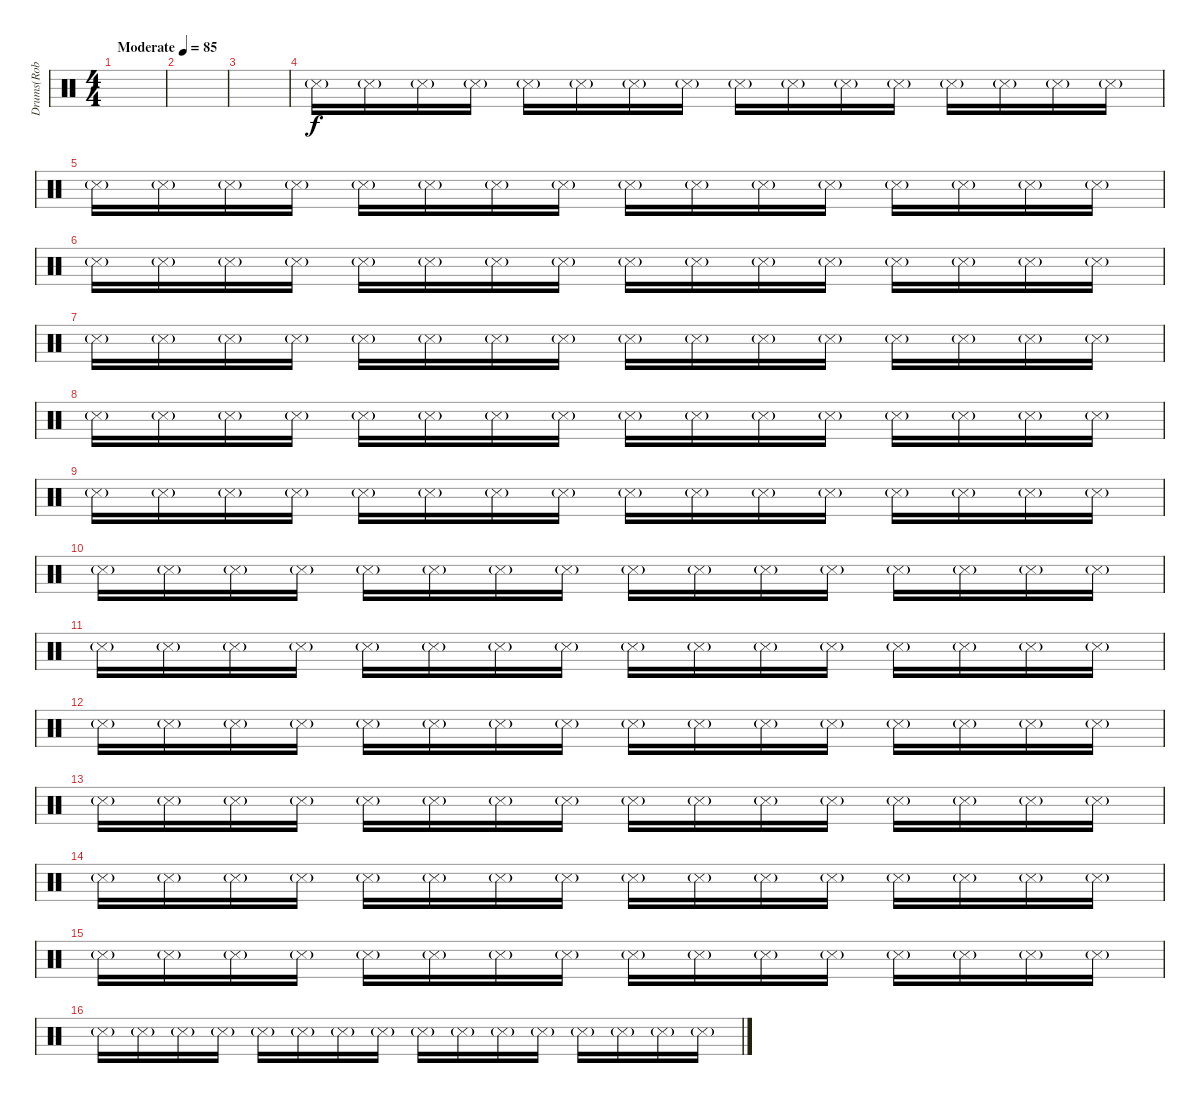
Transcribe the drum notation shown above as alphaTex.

\track ("Drums(Rob Bourdon)(Left hand)" "Drums(Rob ") {instrument percussion}
\staff {score}
\articulation defaults
\ts (4 4)
\tempo (85 "Moderate")
\clef neutral
\ks c
|
|
|
"Metronome (hit)"{g}.16{volume 0} "Metronome (hit)"{g}.16{volume 7} "Metronome (hit)"{g}.16 "Metronome (hit)"{g}.16 "Metronome (hit)"{g}.16 "Metronome (hit)"{g}.16 "Metronome (hit)"{g}.16 "Metronome (hit)"{g}.16 "Metronome (hit)"{g}.16 "Metronome (hit)"{g}.16 "Metronome (hit)"{g}.16 "Metronome (hit)"{g}.16 "Metronome (hit)"{g}.16 "Metronome (hit)"{g}.16 "Metronome (hit)"{g}.16 "Metronome (hit)"{g}.16 |
"Metronome (hit)"{g}.16{volume 7} "Metronome (hit)"{g}.16 "Metronome (hit)"{g}.16 "Metronome (hit)"{g}.16 "Metronome (hit)"{g}.16 "Metronome (hit)"{g}.16 "Metronome (hit)"{g}.16 "Metronome (hit)"{g}.16 "Metronome (hit)"{g}.16 "Metronome (hit)"{g}.16 "Metronome (hit)"{g}.16 "Metronome (hit)"{g}.16 "Metronome (hit)"{g}.16 "Metronome (hit)"{g}.16 "Metronome (hit)"{g}.16 "Metronome (hit)"{g}.16 |
"Metronome (hit)"{g}.16 "Metronome (hit)"{g}.16 "Metronome (hit)"{g}.16 "Metronome (hit)"{g}.16 "Metronome (hit)"{g}.16 "Metronome (hit)"{g}.16 "Metronome (hit)"{g}.16 "Metronome (hit)"{g}.16 "Metronome (hit)"{g}.16 "Metronome (hit)"{g}.16 "Metronome (hit)"{g}.16 "Metronome (hit)"{g}.16 "Metronome (hit)"{g}.16 "Metronome (hit)"{g}.16 "Metronome (hit)"{g}.16 "Metronome (hit)"{g}.16 |
"Metronome (hit)"{g}.16 "Metronome (hit)"{g}.16 "Metronome (hit)"{g}.16 "Metronome (hit)"{g}.16 "Metronome (hit)"{g}.16 "Metronome (hit)"{g}.16 "Metronome (hit)"{g}.16 "Metronome (hit)"{g}.16 "Metronome (hit)"{g}.16 "Metronome (hit)"{g}.16 "Metronome (hit)"{g}.16 "Metronome (hit)"{g}.16 "Metronome (hit)"{g}.16 "Metronome (hit)"{g}.16 "Metronome (hit)"{g}.16 "Metronome (hit)"{g}.16 |
"Metronome (hit)"{g}.16 "Metronome (hit)"{g}.16 "Metronome (hit)"{g}.16 "Metronome (hit)"{g}.16 "Metronome (hit)"{g}.16 "Metronome (hit)"{g}.16 "Metronome (hit)"{g}.16 "Metronome (hit)"{g}.16 "Metronome (hit)"{g}.16 "Metronome (hit)"{g}.16 "Metronome (hit)"{g}.16 "Metronome (hit)"{g}.16 "Metronome (hit)"{g}.16 "Metronome (hit)"{g}.16 "Metronome (hit)"{g}.16 "Metronome (hit)"{g}.16 |
"Metronome (hit)"{g}.16{volume 8} "Metronome (hit)"{g}.16 "Metronome (hit)"{g}.16 "Metronome (hit)"{g}.16 "Metronome (hit)"{g}.16 "Metronome (hit)"{g}.16 "Metronome (hit)"{g}.16 "Metronome (hit)"{g}.16 "Metronome (hit)"{g}.16 "Metronome (hit)"{g}.16 "Metronome (hit)"{g}.16 "Metronome (hit)"{g}.16 "Metronome (hit)"{g}.16 "Metronome (hit)"{g}.16 "Metronome (hit)"{g}.16 "Metronome (hit)"{g}.16 |
"Metronome (hit)"{g}.16 "Metronome (hit)"{g}.16 "Metronome (hit)"{g}.16 "Metronome (hit)"{g}.16 "Metronome (hit)"{g}.16 "Metronome (hit)"{g}.16 "Metronome (hit)"{g}.16 "Metronome (hit)"{g}.16 "Metronome (hit)"{g}.16 "Metronome (hit)"{g}.16 "Metronome (hit)"{g}.16 "Metronome (hit)"{g}.16 "Metronome (hit)"{g}.16 "Metronome (hit)"{g}.16 "Metronome (hit)"{g}.16 "Metronome (hit)"{g}.16 |
"Metronome (hit)"{g}.16 "Metronome (hit)"{g}.16 "Metronome (hit)"{g}.16 "Metronome (hit)"{g}.16 "Metronome (hit)"{g}.16 "Metronome (hit)"{g}.16 "Metronome (hit)"{g}.16 "Metronome (hit)"{g}.16 "Metronome (hit)"{g}.16 "Metronome (hit)"{g}.16 "Metronome (hit)"{g}.16 "Metronome (hit)"{g}.16 "Metronome (hit)"{g}.16 "Metronome (hit)"{g}.16 "Metronome (hit)"{g}.16 "Metronome (hit)"{g}.16 |
"Metronome (hit)"{g}.16 "Metronome (hit)"{g}.16 "Metronome (hit)"{g}.16 "Metronome (hit)"{g}.16 "Metronome (hit)"{g}.16 "Metronome (hit)"{g}.16 "Metronome (hit)"{g}.16 "Metronome (hit)"{g}.16 "Metronome (hit)"{g}.16 "Metronome (hit)"{g}.16 "Metronome (hit)"{g}.16 "Metronome (hit)"{g}.16 "Metronome (hit)"{g}.16 "Metronome (hit)"{g}.16 "Metronome (hit)"{g}.16 "Metronome (hit)"{g}.16 |
"Metronome (hit)"{g}.16 "Metronome (hit)"{g}.16 "Metronome (hit)"{g}.16 "Metronome (hit)"{g}.16 "Metronome (hit)"{g}.16 "Metronome (hit)"{g}.16 "Metronome (hit)"{g}.16 "Metronome (hit)"{g}.16 "Metronome (hit)"{g}.16 "Metronome (hit)"{g}.16 "Metronome (hit)"{g}.16 "Metronome (hit)"{g}.16 "Metronome (hit)"{g}.16 "Metronome (hit)"{g}.16 "Metronome (hit)"{g}.16 "Metronome (hit)"{g}.16 |
"Metronome (hit)"{g}.16 "Metronome (hit)"{g}.16 "Metronome (hit)"{g}.16 "Metronome (hit)"{g}.16 "Metronome (hit)"{g}.16 "Metronome (hit)"{g}.16 "Metronome (hit)"{g}.16 "Metronome (hit)"{g}.16 "Metronome (hit)"{g}.16 "Metronome (hit)"{g}.16 "Metronome (hit)"{g}.16 "Metronome (hit)"{g}.16 "Metronome (hit)"{g}.16 "Metronome (hit)"{g}.16 "Metronome (hit)"{g}.16 "Metronome (hit)"{g}.16 |
"Metronome (hit)"{g}.16 "Metronome (hit)"{g}.16 "Metronome (hit)"{g}.16 "Metronome (hit)"{g}.16 "Metronome (hit)"{g}.16 "Metronome (hit)"{g}.16 "Metronome (hit)"{g}.16 "Metronome (hit)"{g}.16 "Metronome (hit)"{g}.16 "Metronome (hit)"{g}.16 "Metronome (hit)"{g}.16 "Metronome (hit)"{g}.16 "Metronome (hit)"{g}.16 "Metronome (hit)"{g}.16 "Metronome (hit)"{g}.16 "Metronome (hit)"{g}.16 |
"Metronome (hit)"{g}.16 "Metronome (hit)"{g}.16 "Metronome (hit)"{g}.16 "Metronome (hit)"{g}.16 "Metronome (hit)"{g}.16 "Metronome (hit)"{g}.16 "Metronome (hit)"{g}.16 "Metronome (hit)"{g}.16 "Metronome (hit)"{g}.16 "Metronome (hit)"{g}.16 "Metronome (hit)"{g}.16 "Metronome (hit)"{g}.16 "Metronome (hit)"{g}.16 "Metronome (hit)"{g}.16 "Metronome (hit)"{g}.16 "Metronome (hit)"{g}.16
